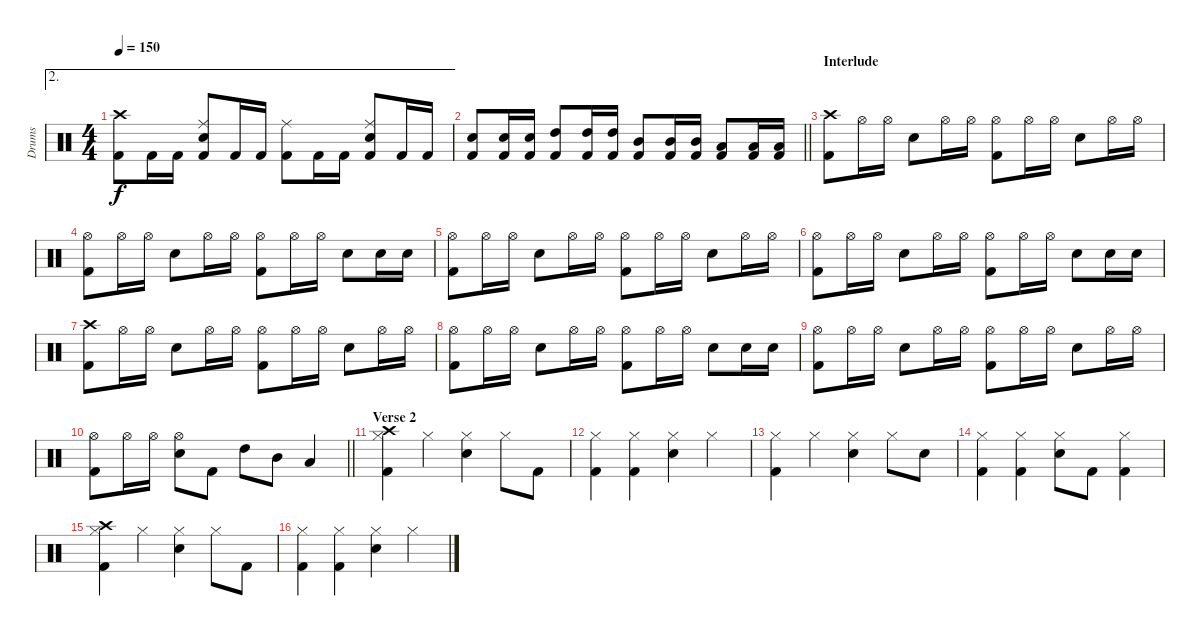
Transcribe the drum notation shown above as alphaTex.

\track ("Drums" "Drums") {instrument percussion}
\staff {score}
\articulation defaults
\ae 2
\ts (4 4)
\tempo 150
\clef neutral
\ks c
("Crash high (hit)" "Kick (hit) 2").8{dy f} "Kick (hit) 2".16 "Kick (hit) 2".16 ("Ride (middle)" "Snare (hit) 2" "Kick (hit) 2").8 "Kick (hit) 2".16 "Kick (hit) 2".16 ("Ride (middle)" "Kick (hit) 2").8 "Kick (hit) 2".16 "Kick (hit) 2".16 ("Ride (middle)" "Snare (hit) 2" "Kick (hit) 2").8 "Kick (hit) 2".16 "Kick (hit) 2".16 |
\barLineRight lightlight
("Snare (hit) 2" "Kick (hit) 2").8 ("Snare (hit) 2" "Kick (hit) 2").16 ("Snare (hit) 2" "Kick (hit) 2").16 ("High Tom (hit)" "Kick (hit) 2").8 ("High Tom (hit)" "Kick (hit) 2").16 ("High Tom (hit)" "Kick (hit) 2").16 ("Mid Tom (hit)" "Kick (hit) 2").8 ("Mid Tom (hit)" "Kick (hit) 2").16 ("Mid Tom (hit)" "Kick (hit) 2").16 ("Low Tom (hit)" "Kick (hit) 2").8 ("Low Tom (hit)" "Kick (hit) 2").16 ("Low Tom (hit)" "Kick (hit) 2").16 |
\section ("" "Interlude")
("Crash high (hit)" "Kick (hit) 2").8 "Hi-Hat (open)".16 "Hi-Hat (open)".16 "Snare (hit) 2".8 "Hi-Hat (open)".16 "Hi-Hat (open)".16 ("Hi-Hat (open)" "Kick (hit) 2").8 "Hi-Hat (open)".16 "Hi-Hat (open)".16 "Snare (hit) 2".8 "Hi-Hat (open)".16 "Hi-Hat (open)".16 |
("Hi-Hat (open)" "Kick (hit) 2").8 "Hi-Hat (open)".16 "Hi-Hat (open)".16 "Snare (hit) 2".8 "Hi-Hat (open)".16 "Hi-Hat (open)".16 ("Hi-Hat (open)" "Kick (hit) 2").8 "Hi-Hat (open)".16 "Hi-Hat (open)".16 "Snare (hit) 2".8 "Snare (hit) 2".16 "Snare (hit) 2".16 |
("Hi-Hat (open)" "Kick (hit) 2").8 "Hi-Hat (open)".16 "Hi-Hat (open)".16 "Snare (hit) 2".8 "Hi-Hat (open)".16 "Hi-Hat (open)".16 ("Hi-Hat (open)" "Kick (hit) 2").8 "Hi-Hat (open)".16 "Hi-Hat (open)".16 "Snare (hit) 2".8 "Hi-Hat (open)".16 "Hi-Hat (open)".16 |
("Hi-Hat (open)" "Kick (hit) 2").8 "Hi-Hat (open)".16 "Hi-Hat (open)".16 "Snare (hit) 2".8 "Hi-Hat (open)".16 "Hi-Hat (open)".16 ("Hi-Hat (open)" "Kick (hit) 2").8 "Hi-Hat (open)".16 "Hi-Hat (open)".16 "Snare (hit) 2".8 "Snare (hit) 2".16 "Snare (hit) 2".16 |
("Crash high (hit)" "Kick (hit) 2").8 "Hi-Hat (open)".16 "Hi-Hat (open)".16 "Snare (hit) 2".8 "Hi-Hat (open)".16 "Hi-Hat (open)".16 ("Hi-Hat (open)" "Kick (hit) 2").8 "Hi-Hat (open)".16 "Hi-Hat (open)".16 "Snare (hit) 2".8 "Hi-Hat (open)".16 "Hi-Hat (open)".16 |
("Hi-Hat (open)" "Kick (hit) 2").8 "Hi-Hat (open)".16 "Hi-Hat (open)".16 "Snare (hit) 2".8 "Hi-Hat (open)".16 "Hi-Hat (open)".16 ("Hi-Hat (open)" "Kick (hit) 2").8 "Hi-Hat (open)".16 "Hi-Hat (open)".16 "Snare (hit) 2".8 "Snare (hit) 2".16 "Snare (hit) 2".16 |
("Hi-Hat (open)" "Kick (hit) 2").8 "Hi-Hat (open)".16 "Hi-Hat (open)".16 "Snare (hit) 2".8 "Hi-Hat (open)".16 "Hi-Hat (open)".16 ("Hi-Hat (open)" "Kick (hit) 2").8 "Hi-Hat (open)".16 "Hi-Hat (open)".16 "Snare (hit) 2".8 "Hi-Hat (open)".16 "Hi-Hat (open)".16 |
\barLineRight lightlight
("Hi-Hat (open)" "Kick (hit) 2").8 "Hi-Hat (open)".16 "Hi-Hat (open)".16 ("Hi-Hat (open)" "Snare (hit) 2").8 "Kick (hit) 2".8 "High Tom (hit)".8 "Mid Tom (hit)".8 "Low Tom (hit)".4 |
\section ("" "Verse 2")
("Crash high (hit)" "Hi-Hat (closed)" "Kick (hit) 2").4 "Hi-Hat (closed)".4 ("Hi-Hat (closed)" "Snare (hit) 2").4 "Hi-Hat (closed)".8 "Kick (hit) 2".8 |
("Hi-Hat (closed)" "Kick (hit) 2").4 ("Hi-Hat (closed)" "Kick (hit) 2").4 ("Hi-Hat (closed)" "Snare (hit) 2").4 "Hi-Hat (closed)".4 |
("Hi-Hat (closed)" "Kick (hit) 2").4 "Hi-Hat (closed)".4 ("Hi-Hat (closed)" "Snare (hit) 2").4 "Hi-Hat (closed)".8 "Snare (hit) 2".8 |
("Hi-Hat (closed)" "Kick (hit) 2").4 ("Hi-Hat (closed)" "Kick (hit) 2").4 ("Hi-Hat (closed)" "Snare (hit) 2").8 "Kick (hit) 2".8 ("Hi-Hat (closed)" "Kick (hit) 2").4 |
("Crash high (hit)" "Hi-Hat (closed)" "Kick (hit) 2").4 "Hi-Hat (closed)".4 ("Hi-Hat (closed)" "Snare (hit) 2").4 "Hi-Hat (closed)".8 "Kick (hit) 2".8 |
("Hi-Hat (closed)" "Kick (hit) 2").4 ("Hi-Hat (closed)" "Kick (hit) 2").4 ("Hi-Hat (closed)" "Snare (hit) 2").4 "Hi-Hat (closed)".4
